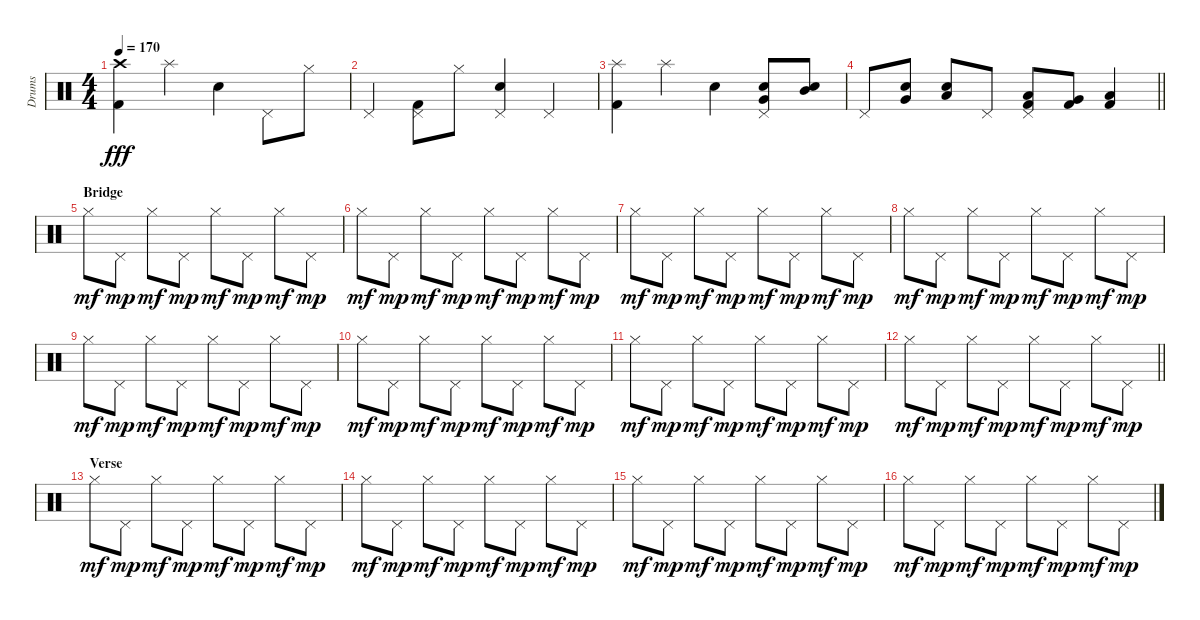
\track ("Drums" "Drums") {instrument percussion}
\staff {score}
\articulation defaults
\ts (4 4)
\tempo 170
\clef neutral
\ks c
("Crash high (hit)" "Kick (hit) 2").4{dy fff} "Splash (hit)".4 "Snare (hit) 2".4 "Pedal Hi-Hat (hit)".8 "Hi-Hat (closed)".8 |
"Pedal Hi-Hat (hit)".4 ("Pedal Hi-Hat (hit)" "Kick (hit) 2").8 "Hi-Hat (closed)".8 ("Pedal Hi-Hat (hit)" "Snare (hit) 2").4 "Pedal Hi-Hat (hit)".4 |
("Splash (hit)" "Kick (hit) 2").4 "Splash (hit)".4 "Snare (hit) 2".4 ("Pedal Hi-Hat (hit)" "Snare (hit) 2" "Very Low Tom (hit)").8 ("Snare (hit) 2" "Mid Tom (hit)").8 |
\barLineRight lightlight "Pedal Hi-Hat (hit)".8
("Snare (hit) 2" "Very Low Tom (hit)").8 ("Snare (hit) 2" "Low Tom (hit)").8 "Pedal Hi-Hat (hit)".8 ("Pedal Hi-Hat (hit)" "Low Tom (hit)" "Kick (hit) 2").8 ("Very Low Tom (hit)" "Kick (hit) 2").8 ("Low Floor Tom (hit)" "Kick (hit) 2").4 |
\section ("" "Bridge")
"Hi-Hat (closed)".8{dy mf volume 3} "Pedal Hi-Hat (hit)".8{dy mp} "Hi-Hat (closed)".8{dy mf} "Pedal Hi-Hat (hit)".8{dy mp} "Hi-Hat (closed)".8{dy mf} "Pedal Hi-Hat (hit)".8{dy mp} "Hi-Hat (closed)".8{dy mf} "Pedal Hi-Hat (hit)".8{dy mp} |
"Hi-Hat (closed)".8{dy mf} "Pedal Hi-Hat (hit)".8{dy mp} "Hi-Hat (closed)".8{dy mf} "Pedal Hi-Hat (hit)".8{dy mp} "Hi-Hat (closed)".8{dy mf} "Pedal Hi-Hat (hit)".8{dy mp} "Hi-Hat (closed)".8{dy mf} "Pedal Hi-Hat (hit)".8{dy mp} |
"Hi-Hat (closed)".8{dy mf} "Pedal Hi-Hat (hit)".8{dy mp} "Hi-Hat (closed)".8{dy mf} "Pedal Hi-Hat (hit)".8{dy mp} "Hi-Hat (closed)".8{dy mf} "Pedal Hi-Hat (hit)".8{dy mp} "Hi-Hat (closed)".8{dy mf} "Pedal Hi-Hat (hit)".8{dy mp} |
"Hi-Hat (closed)".8{dy mf} "Pedal Hi-Hat (hit)".8{dy mp} "Hi-Hat (closed)".8{dy mf} "Pedal Hi-Hat (hit)".8{dy mp} "Hi-Hat (closed)".8{dy mf} "Pedal Hi-Hat (hit)".8{dy mp} "Hi-Hat (closed)".8{dy mf} "Pedal Hi-Hat (hit)".8{dy mp} |
"Hi-Hat (closed)".8{dy mf} "Pedal Hi-Hat (hit)".8{dy mp} "Hi-Hat (closed)".8{dy mf} "Pedal Hi-Hat (hit)".8{dy mp} "Hi-Hat (closed)".8{dy mf} "Pedal Hi-Hat (hit)".8{dy mp} "Hi-Hat (closed)".8{dy mf} "Pedal Hi-Hat (hit)".8{dy mp} |
"Hi-Hat (closed)".8{dy mf} "Pedal Hi-Hat (hit)".8{dy mp} "Hi-Hat (closed)".8{dy mf} "Pedal Hi-Hat (hit)".8{dy mp} "Hi-Hat (closed)".8{dy mf} "Pedal Hi-Hat (hit)".8{dy mp} "Hi-Hat (closed)".8{dy mf} "Pedal Hi-Hat (hit)".8{dy mp} |
"Hi-Hat (closed)".8{dy mf} "Pedal Hi-Hat (hit)".8{dy mp} "Hi-Hat (closed)".8{dy mf} "Pedal Hi-Hat (hit)".8{dy mp} "Hi-Hat (closed)".8{dy mf} "Pedal Hi-Hat (hit)".8{dy mp} "Hi-Hat (closed)".8{dy mf} "Pedal Hi-Hat (hit)".8{dy mp} |
\barLineRight lightlight "Hi-Hat (closed)".8{dy mf} "Pedal Hi-Hat (hit)".8{dy mp} "Hi-Hat (closed)".8{dy mf} "Pedal Hi-Hat (hit)".8{dy mp} "Hi-Hat (closed)".8{dy mf} "Pedal Hi-Hat (hit)".8{dy mp} "Hi-Hat (closed)".8{dy mf} "Pedal Hi-Hat (hit)".8{dy mp}
|
\section ("" "Verse")
"Hi-Hat (closed)".8{dy mf} "Pedal Hi-Hat (hit)".8{dy mp} "Hi-Hat (closed)".8{dy mf} "Pedal Hi-Hat (hit)".8{dy mp} "Hi-Hat (closed)".8{dy mf} "Pedal Hi-Hat (hit)".8{dy mp} "Hi-Hat (closed)".8{dy mf} "Pedal Hi-Hat (hit)".8{dy mp} |
"Hi-Hat (closed)".8{dy mf} "Pedal Hi-Hat (hit)".8{dy mp} "Hi-Hat (closed)".8{dy mf} "Pedal Hi-Hat (hit)".8{dy mp} "Hi-Hat (closed)".8{dy mf} "Pedal Hi-Hat (hit)".8{dy mp} "Hi-Hat (closed)".8{dy mf} "Pedal Hi-Hat (hit)".8{dy mp} |
"Hi-Hat (closed)".8{dy mf} "Pedal Hi-Hat (hit)".8{dy mp} "Hi-Hat (closed)".8{dy mf} "Pedal Hi-Hat (hit)".8{dy mp} "Hi-Hat (closed)".8{dy mf} "Pedal Hi-Hat (hit)".8{dy mp} "Hi-Hat (closed)".8{dy mf} "Pedal Hi-Hat (hit)".8{dy mp} |
"Hi-Hat (closed)".8{dy mf} "Pedal Hi-Hat (hit)".8{dy mp} "Hi-Hat (closed)".8{dy mf} "Pedal Hi-Hat (hit)".8{dy mp} "Hi-Hat (closed)".8{dy mf} "Pedal Hi-Hat (hit)".8{dy mp} "Hi-Hat (closed)".8{dy mf} "Pedal Hi-Hat (hit)".8{dy mp}
